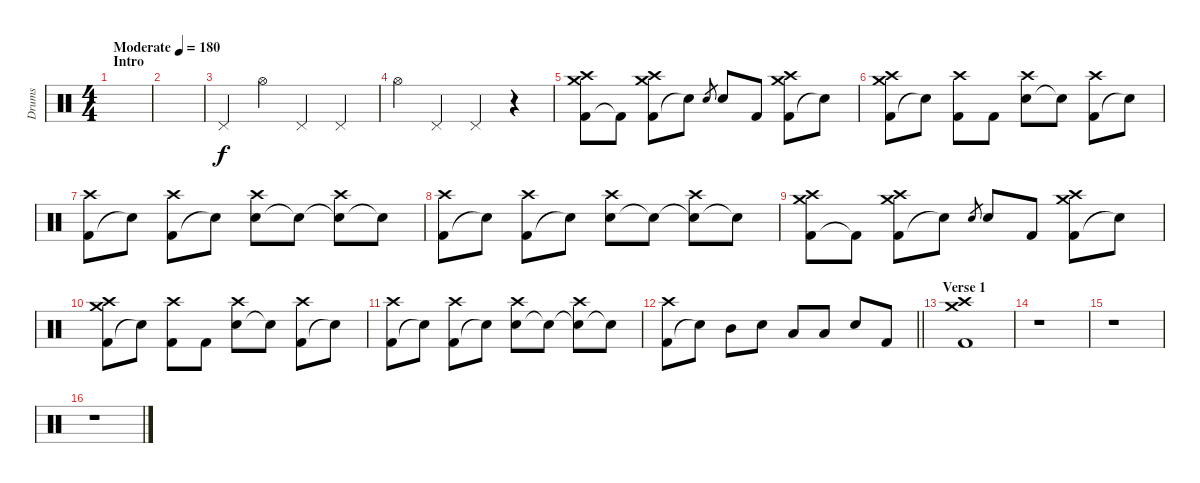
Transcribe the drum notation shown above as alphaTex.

\track ("Drums" "Drums") {instrument percussion}
\staff {score}
\articulation defaults
\ts (4 4)
\section ("" "Intro")
\tempo (180 "Moderate")
\clef neutral
\ks c
|
|
"Pedal Hi-Hat (hit)".4 "Hi-Hat (open)".4 "Pedal Hi-Hat (hit)".4 "Pedal Hi-Hat (hit)".4 |
"Hi-Hat (open)".4 "Pedal Hi-Hat (hit)".4 "Pedal Hi-Hat (hit)".4 r.4 |
("Kick (hit) 2" "Crash medium (hit)" "Crash high (hit)").8 "Kick (hit) 2"{t}.8 ("Kick (hit) 2" "Crash medium (hit)" "Crash high (hit)").8 "Electric Snare (hit)"{t}.8 "Electric Snare (hit)".8{gr} "Electric Snare (hit)".8 "Kick (hit) 2".8 ("Kick (hit) 2" "Crash medium (hit)" "Crash high (hit)").8 "Snare (hit)"{t}.8 |
("Kick (hit) 2" "Crash medium (hit)" "Crash high (hit)").8 "Snare (hit)"{t}.8 ("Kick (hit) 2" "Crash high (hit)").8 "Kick (hit) 2".8 ("Electric Snare (hit)" "Crash high (hit)").8 "Snare (hit)"{t}.8 ("Kick (hit) 2" "Crash high (hit)").8 "Snare (hit)"{t}.8 |
("Kick (hit) 2" "Crash high (hit)").8 "Snare (hit)"{t}.8 ("Kick (hit) 2" "Crash high (hit)").8 "Snare (hit)"{t}.8 ("Electric Snare (hit)" "Crash high (hit)").8 "Snare (hit)"{t}.8 ("Snare (hit)"{t} "Crash high (hit)").8 "Snare (hit)"{t}.8 |
("Kick (hit) 2" "Crash high (hit)").8 "Snare (hit)"{t}.8 ("Kick (hit) 2" "Crash high (hit)").8 "Snare (hit)"{t}.8 ("Electric Snare (hit)" "Crash high (hit)").8 "Snare (hit)"{t}.8 ("Snare (hit)"{t} "Crash high (hit)").8 "Snare (hit)"{t}.8 |
("Kick (hit) 2" "Crash medium (hit)" "Crash high (hit)").8 "Kick (hit) 2"{t}.8 ("Kick (hit) 2" "Crash medium (hit)" "Crash high (hit)").8 "Electric Snare (hit)"{t}.8 "Electric Snare (hit)".8{gr} "Electric Snare (hit)".8 "Kick (hit) 2".8 ("Kick (hit) 2" "Crash medium (hit)" "Crash high (hit)").8 "Snare (hit)"{t}.8 |
("Kick (hit) 2" "Crash medium (hit)" "Crash high (hit)").8 "Snare (hit)"{t}.8 ("Kick (hit) 2" "Crash high (hit)").8 "Kick (hit) 2".8 ("Electric Snare (hit)" "Crash high (hit)").8 "Snare (hit)"{t}.8 ("Kick (hit) 2" "Crash high (hit)").8 "Snare (hit)"{t}.8 |
("Kick (hit) 2" "Crash high (hit)").8 "Snare (hit)"{t}.8 ("Kick (hit) 2" "Crash high (hit)").8 "Snare (hit)"{t}.8 ("Electric Snare (hit)" "Crash high (hit)").8 "Snare (hit)"{t}.8 ("Snare (hit)"{t} "Crash high (hit)").8 "Snare (hit)"{t}.8 |
\barLineRight lightlight
("Kick (hit) 2" "Crash high (hit)").8 "Snare (hit)"{t}.8 "Mid Tom (hit)".8 "Electric Snare (hit)".8 "Low Tom (hit)".8 "Low Floor Tom (hit)".8 "Electric Snare (hit)".8 "Kick (hit) 2".8 |
\section ("" "Verse 1")
("Kick (hit) 2" "Crash medium (hit)" "Crash high (hit)").1 |
r.1 |
r.1 |
r.1
